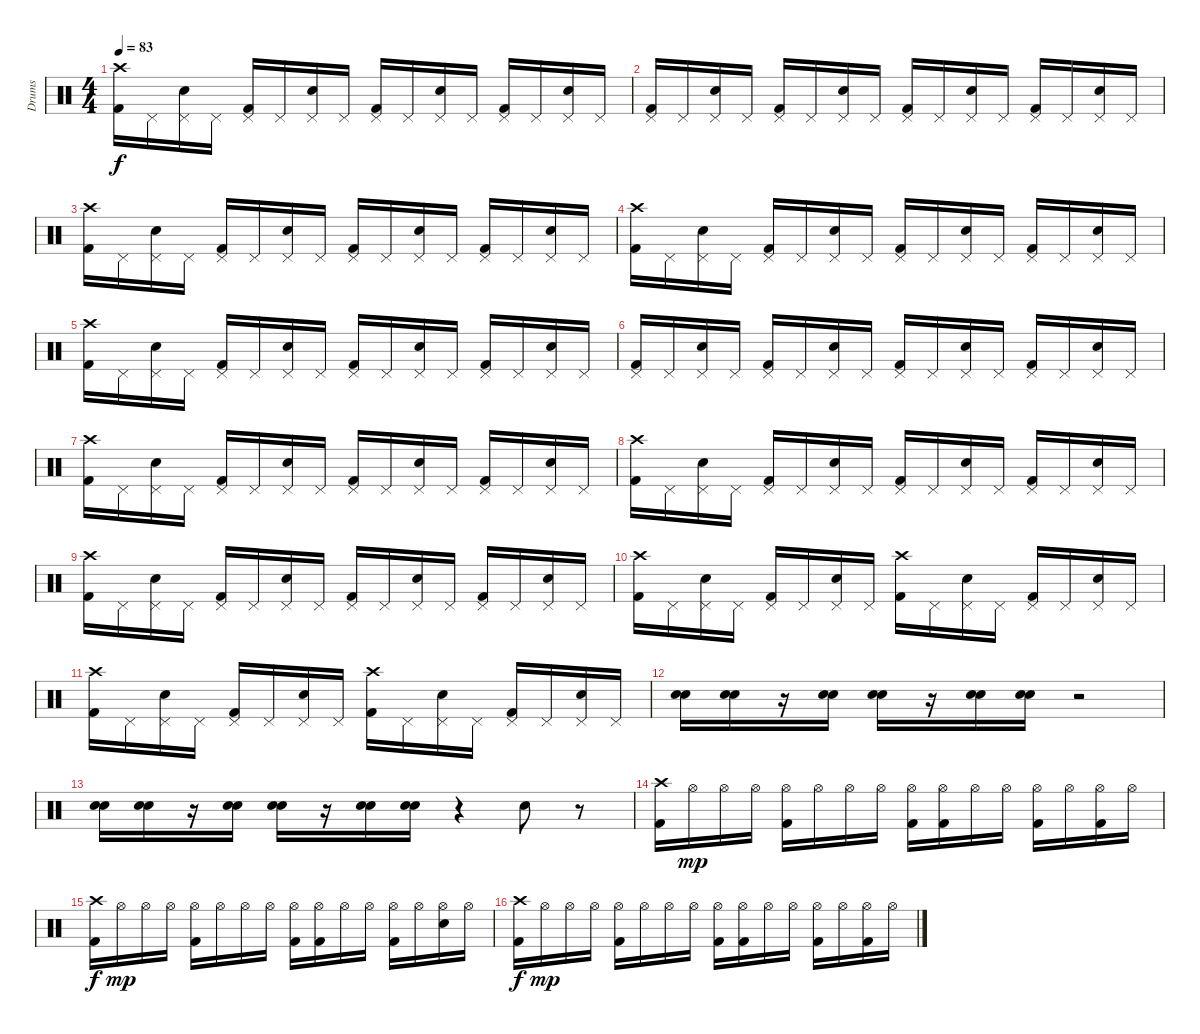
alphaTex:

\track ("Drums" "Drums") {instrument percussion}
\staff {score}
\articulation defaults
\ts (4 4)
\tempo 83
\clef neutral
\ks c
("Crash high (hit)" "Kick (hit) 2").16{dy f} "Pedal Hi-Hat (hit)".16 ("Pedal Hi-Hat (hit)" "Snare (hit) 2").16 "Pedal Hi-Hat (hit)".16 ("Pedal Hi-Hat (hit)" "Kick (hit) 2").16 "Pedal Hi-Hat (hit)".16 ("Pedal Hi-Hat (hit)" "Snare (hit) 2").16 "Pedal Hi-Hat (hit)".16 ("Pedal Hi-Hat (hit)" "Kick (hit) 2").16 "Pedal Hi-Hat (hit)".16 ("Pedal Hi-Hat (hit)" "Snare (hit) 2").16 "Pedal Hi-Hat (hit)".16 ("Pedal Hi-Hat (hit)" "Kick (hit) 2").16 "Pedal Hi-Hat (hit)".16 ("Pedal Hi-Hat (hit)" "Snare (hit) 2").16 "Pedal Hi-Hat (hit)".16 |
("Pedal Hi-Hat (hit)" "Kick (hit) 2").16 "Pedal Hi-Hat (hit)".16 ("Pedal Hi-Hat (hit)" "Snare (hit) 2").16 "Pedal Hi-Hat (hit)".16 ("Pedal Hi-Hat (hit)" "Kick (hit) 2").16 "Pedal Hi-Hat (hit)".16 ("Pedal Hi-Hat (hit)" "Snare (hit) 2").16 "Pedal Hi-Hat (hit)".16 ("Pedal Hi-Hat (hit)" "Kick (hit) 2").16 "Pedal Hi-Hat (hit)".16 ("Pedal Hi-Hat (hit)" "Snare (hit) 2").16 "Pedal Hi-Hat (hit)".16 ("Pedal Hi-Hat (hit)" "Kick (hit) 2").16 "Pedal Hi-Hat (hit)".16 ("Pedal Hi-Hat (hit)" "Snare (hit) 2").16 "Pedal Hi-Hat (hit)".16 |
("Crash high (hit)" "Kick (hit) 2").16 "Pedal Hi-Hat (hit)".16 ("Pedal Hi-Hat (hit)" "Snare (hit) 2").16 "Pedal Hi-Hat (hit)".16 ("Pedal Hi-Hat (hit)" "Kick (hit) 2").16 "Pedal Hi-Hat (hit)".16 ("Pedal Hi-Hat (hit)" "Snare (hit) 2").16 "Pedal Hi-Hat (hit)".16 ("Pedal Hi-Hat (hit)" "Kick (hit) 2").16 "Pedal Hi-Hat (hit)".16 ("Pedal Hi-Hat (hit)" "Snare (hit) 2").16 "Pedal Hi-Hat (hit)".16 ("Pedal Hi-Hat (hit)" "Kick (hit) 2").16 "Pedal Hi-Hat (hit)".16 ("Pedal Hi-Hat (hit)" "Snare (hit) 2").16 "Pedal Hi-Hat (hit)".16 |
("Crash high (hit)" "Kick (hit) 2").16 "Pedal Hi-Hat (hit)".16 ("Pedal Hi-Hat (hit)" "Snare (hit) 2").16 "Pedal Hi-Hat (hit)".16 ("Pedal Hi-Hat (hit)" "Kick (hit) 2").16 "Pedal Hi-Hat (hit)".16 ("Pedal Hi-Hat (hit)" "Snare (hit) 2").16 "Pedal Hi-Hat (hit)".16 ("Pedal Hi-Hat (hit)" "Kick (hit) 2").16 "Pedal Hi-Hat (hit)".16 ("Pedal Hi-Hat (hit)" "Snare (hit) 2").16 "Pedal Hi-Hat (hit)".16 ("Pedal Hi-Hat (hit)" "Kick (hit) 2").16 "Pedal Hi-Hat (hit)".16 ("Pedal Hi-Hat (hit)" "Snare (hit) 2").16 "Pedal Hi-Hat (hit)".16 |
("Crash high (hit)" "Kick (hit) 2").16 "Pedal Hi-Hat (hit)".16 ("Pedal Hi-Hat (hit)" "Snare (hit) 2").16 "Pedal Hi-Hat (hit)".16 ("Pedal Hi-Hat (hit)" "Kick (hit) 2").16 "Pedal Hi-Hat (hit)".16 ("Pedal Hi-Hat (hit)" "Snare (hit) 2").16 "Pedal Hi-Hat (hit)".16 ("Pedal Hi-Hat (hit)" "Kick (hit) 2").16 "Pedal Hi-Hat (hit)".16 ("Pedal Hi-Hat (hit)" "Snare (hit) 2").16 "Pedal Hi-Hat (hit)".16 ("Pedal Hi-Hat (hit)" "Kick (hit) 2").16 "Pedal Hi-Hat (hit)".16 ("Pedal Hi-Hat (hit)" "Snare (hit) 2").16 "Pedal Hi-Hat (hit)".16 |
("Pedal Hi-Hat (hit)" "Kick (hit) 2").16 "Pedal Hi-Hat (hit)".16 ("Pedal Hi-Hat (hit)" "Snare (hit) 2").16 "Pedal Hi-Hat (hit)".16 ("Pedal Hi-Hat (hit)" "Kick (hit) 2").16 "Pedal Hi-Hat (hit)".16 ("Pedal Hi-Hat (hit)" "Snare (hit) 2").16 "Pedal Hi-Hat (hit)".16 ("Pedal Hi-Hat (hit)" "Kick (hit) 2").16 "Pedal Hi-Hat (hit)".16 ("Pedal Hi-Hat (hit)" "Snare (hit) 2").16 "Pedal Hi-Hat (hit)".16 ("Pedal Hi-Hat (hit)" "Kick (hit) 2").16 "Pedal Hi-Hat (hit)".16 ("Pedal Hi-Hat (hit)" "Snare (hit) 2").16 "Pedal Hi-Hat (hit)".16 |
("Crash high (hit)" "Kick (hit) 2").16 "Pedal Hi-Hat (hit)".16 ("Pedal Hi-Hat (hit)" "Snare (hit) 2").16 "Pedal Hi-Hat (hit)".16 ("Pedal Hi-Hat (hit)" "Kick (hit) 2").16 "Pedal Hi-Hat (hit)".16 ("Pedal Hi-Hat (hit)" "Snare (hit) 2").16 "Pedal Hi-Hat (hit)".16 ("Pedal Hi-Hat (hit)" "Kick (hit) 2").16 "Pedal Hi-Hat (hit)".16 ("Pedal Hi-Hat (hit)" "Snare (hit) 2").16 "Pedal Hi-Hat (hit)".16 ("Pedal Hi-Hat (hit)" "Kick (hit) 2").16 "Pedal Hi-Hat (hit)".16 ("Pedal Hi-Hat (hit)" "Snare (hit) 2").16 "Pedal Hi-Hat (hit)".16 |
("Crash high (hit)" "Kick (hit) 2").16 "Pedal Hi-Hat (hit)".16 ("Pedal Hi-Hat (hit)" "Snare (hit) 2").16 "Pedal Hi-Hat (hit)".16 ("Pedal Hi-Hat (hit)" "Kick (hit) 2").16 "Pedal Hi-Hat (hit)".16 ("Pedal Hi-Hat (hit)" "Snare (hit) 2").16 "Pedal Hi-Hat (hit)".16 ("Pedal Hi-Hat (hit)" "Kick (hit) 2").16 "Pedal Hi-Hat (hit)".16 ("Pedal Hi-Hat (hit)" "Snare (hit) 2").16 "Pedal Hi-Hat (hit)".16 ("Pedal Hi-Hat (hit)" "Kick (hit) 2").16 "Pedal Hi-Hat (hit)".16 ("Pedal Hi-Hat (hit)" "Snare (hit) 2").16 "Pedal Hi-Hat (hit)".16 |
("Crash high (hit)" "Kick (hit) 2").16 "Pedal Hi-Hat (hit)".16 ("Pedal Hi-Hat (hit)" "Snare (hit) 2").16 "Pedal Hi-Hat (hit)".16 ("Pedal Hi-Hat (hit)" "Kick (hit) 2").16 "Pedal Hi-Hat (hit)".16 ("Pedal Hi-Hat (hit)" "Snare (hit) 2").16 "Pedal Hi-Hat (hit)".16 ("Pedal Hi-Hat (hit)" "Kick (hit) 2").16 "Pedal Hi-Hat (hit)".16 ("Pedal Hi-Hat (hit)" "Snare (hit) 2").16 "Pedal Hi-Hat (hit)".16 ("Pedal Hi-Hat (hit)" "Kick (hit) 2").16 "Pedal Hi-Hat (hit)".16 ("Pedal Hi-Hat (hit)" "Snare (hit) 2").16 "Pedal Hi-Hat (hit)".16 |
("Crash high (hit)" "Kick (hit) 2").16 "Pedal Hi-Hat (hit)".16 ("Pedal Hi-Hat (hit)" "Snare (hit) 2").16 "Pedal Hi-Hat (hit)".16 ("Pedal Hi-Hat (hit)" "Kick (hit) 2").16 "Pedal Hi-Hat (hit)".16 ("Pedal Hi-Hat (hit)" "Snare (hit) 2").16 "Pedal Hi-Hat (hit)".16 ("Crash high (hit)" "Kick (hit) 2").16 "Pedal Hi-Hat (hit)".16 ("Pedal Hi-Hat (hit)" "Snare (hit) 2").16 "Pedal Hi-Hat (hit)".16 ("Pedal Hi-Hat (hit)" "Kick (hit) 2").16 "Pedal Hi-Hat (hit)".16 ("Pedal Hi-Hat (hit)" "Snare (hit) 2").16 "Pedal Hi-Hat (hit)".16 |
("Crash high (hit)" "Kick (hit) 2").16 "Pedal Hi-Hat (hit)".16 ("Pedal Hi-Hat (hit)" "Snare (hit) 2").16 "Pedal Hi-Hat (hit)".16 ("Pedal Hi-Hat (hit)" "Kick (hit) 2").16 "Pedal Hi-Hat (hit)".16 ("Pedal Hi-Hat (hit)" "Snare (hit) 2").16 "Pedal Hi-Hat (hit)".16 ("Crash high (hit)" "Kick (hit) 2").16 "Pedal Hi-Hat (hit)".16 ("Pedal Hi-Hat (hit)" "Snare (hit) 2").16 "Pedal Hi-Hat (hit)".16 ("Pedal Hi-Hat (hit)" "Kick (hit) 2").16 "Pedal Hi-Hat (hit)".16 ("Pedal Hi-Hat (hit)" "Snare (hit) 2").16 "Pedal Hi-Hat (hit)".16 |
("Snare (hit) 2" "Snare (hit) 2").16 ("Snare (hit) 2" "Snare (hit) 2").16 r.16 ("Snare (hit) 2" "Snare (hit) 2").16 ("Snare (hit) 2" "Snare (hit) 2").16 r.16 ("Snare (hit) 2" "Snare (hit) 2").16 ("Snare (hit) 2" "Snare (hit) 2").16 r.2 |
("Snare (hit) 2" "Snare (hit) 2").16 ("Snare (hit) 2" "Snare (hit) 2").16 r.16 ("Snare (hit) 2" "Snare (hit) 2").16 ("Snare (hit) 2" "Snare (hit) 2").16 r.16 ("Snare (hit) 2" "Snare (hit) 2").16 ("Snare (hit) 2" "Snare (hit) 2").16 r.4 "Snare (hit) 2".8 r.8 |
("Crash high (hit)" "Kick (hit) 2").16 "Hi-Hat (open)".16{dy mp} "Hi-Hat (open)".16 "Hi-Hat (open)".16 ("Hi-Hat (open)" "Kick (hit) 2").16 "Hi-Hat (open)".16 "Hi-Hat (open)".16 "Hi-Hat (open)".16 ("Hi-Hat (open)" "Kick (hit) 2").16 ("Hi-Hat (open)" "Kick (hit) 2").16 "Hi-Hat (open)".16 "Hi-Hat (open)".16 ("Hi-Hat (open)" "Kick (hit) 2").16 "Hi-Hat (open)".16 ("Hi-Hat (open)" "Kick (hit) 2").16 "Hi-Hat (open)".16 |
("Crash high (hit)" "Kick (hit) 2").16{dy f} "Hi-Hat (open)".16{dy mp} "Hi-Hat (open)".16 "Hi-Hat (open)".16 ("Hi-Hat (open)" "Kick (hit) 2").16 "Hi-Hat (open)".16 "Hi-Hat (open)".16 "Hi-Hat (open)".16 ("Hi-Hat (open)" "Kick (hit) 2").16 ("Hi-Hat (open)" "Kick (hit) 2").16 "Hi-Hat (open)".16 "Hi-Hat (open)".16 ("Hi-Hat (open)" "Kick (hit) 2").16 "Hi-Hat (open)".16 ("Hi-Hat (open)" "Snare (hit) 2").16 "Hi-Hat (open)".16 |
("Crash high (hit)" "Kick (hit) 2").16{dy f} "Hi-Hat (open)".16{dy mp} "Hi-Hat (open)".16 "Hi-Hat (open)".16 ("Hi-Hat (open)" "Kick (hit) 2").16 "Hi-Hat (open)".16 "Hi-Hat (open)".16 "Hi-Hat (open)".16 ("Hi-Hat (open)" "Kick (hit) 2").16 ("Hi-Hat (open)" "Kick (hit) 2").16 "Hi-Hat (open)".16 "Hi-Hat (open)".16 ("Hi-Hat (open)" "Kick (hit) 2").16 "Hi-Hat (open)".16 ("Hi-Hat (open)" "Kick (hit) 2").16 "Hi-Hat (open)".16
